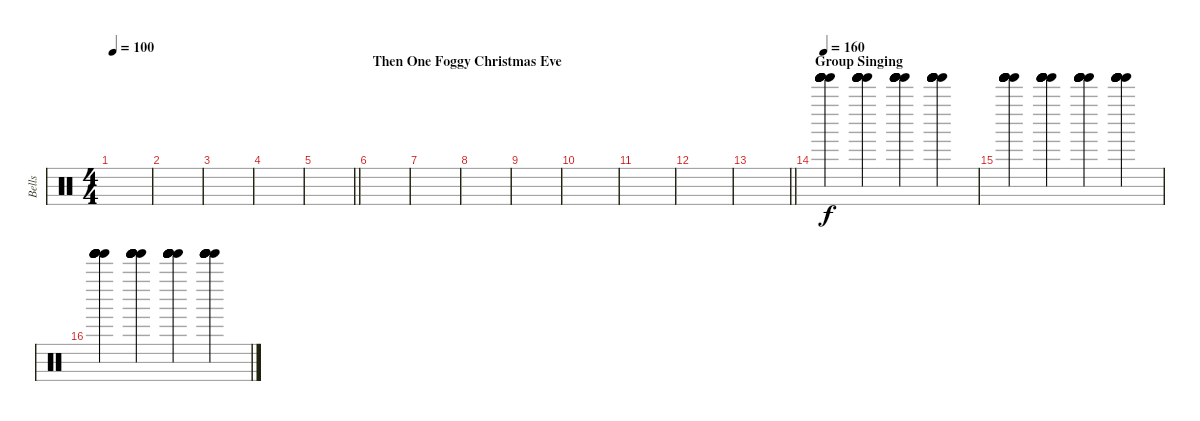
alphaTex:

\track ("Bells" "Bells") {instrument percussion}
\staff {score}
\articulation defaults
\ts (4 4)
\tempo 100
\clef neutral
\ks c
|
|
|
|
\barLineRight lightlight
|
\section ("" "Then One Foggy Christmas Eve")
|
|
|
|
|
|
|
\barLineRight lightlight
|
\section ("" "Group Singing")
\tempo 160
("Tinkle Bell (hit)" "Tinkle Bell (hit)" "Tinkle Bell (hit)" "Tinkle Bell (hit)" "Tinkle Bell (hit)" "Tinkle Bell (hit)").4 ("Tinkle Bell (hit)" "Tinkle Bell (hit)" "Tinkle Bell (hit)" "Tinkle Bell (hit)" "Tinkle Bell (hit)" "Tinkle Bell (hit)").4 ("Tinkle Bell (hit)" "Tinkle Bell (hit)" "Tinkle Bell (hit)" "Tinkle Bell (hit)" "Tinkle Bell (hit)" "Tinkle Bell (hit)").4 ("Tinkle Bell (hit)" "Tinkle Bell (hit)" "Tinkle Bell (hit)" "Tinkle Bell (hit)" "Tinkle Bell (hit)" "Tinkle Bell (hit)").4 |
("Tinkle Bell (hit)" "Tinkle Bell (hit)" "Tinkle Bell (hit)" "Tinkle Bell (hit)" "Tinkle Bell (hit)" "Tinkle Bell (hit)").4 ("Tinkle Bell (hit)" "Tinkle Bell (hit)" "Tinkle Bell (hit)" "Tinkle Bell (hit)" "Tinkle Bell (hit)" "Tinkle Bell (hit)").4 ("Tinkle Bell (hit)" "Tinkle Bell (hit)" "Tinkle Bell (hit)" "Tinkle Bell (hit)" "Tinkle Bell (hit)" "Tinkle Bell (hit)").4 ("Tinkle Bell (hit)" "Tinkle Bell (hit)" "Tinkle Bell (hit)" "Tinkle Bell (hit)" "Tinkle Bell (hit)" "Tinkle Bell (hit)").4 |
("Tinkle Bell (hit)" "Tinkle Bell (hit)" "Tinkle Bell (hit)" "Tinkle Bell (hit)" "Tinkle Bell (hit)" "Tinkle Bell (hit)").4 ("Tinkle Bell (hit)" "Tinkle Bell (hit)" "Tinkle Bell (hit)" "Tinkle Bell (hit)" "Tinkle Bell (hit)" "Tinkle Bell (hit)").4 ("Tinkle Bell (hit)" "Tinkle Bell (hit)" "Tinkle Bell (hit)" "Tinkle Bell (hit)" "Tinkle Bell (hit)" "Tinkle Bell (hit)").4 ("Tinkle Bell (hit)" "Tinkle Bell (hit)" "Tinkle Bell (hit)" "Tinkle Bell (hit)" "Tinkle Bell (hit)" "Tinkle Bell (hit)").4
